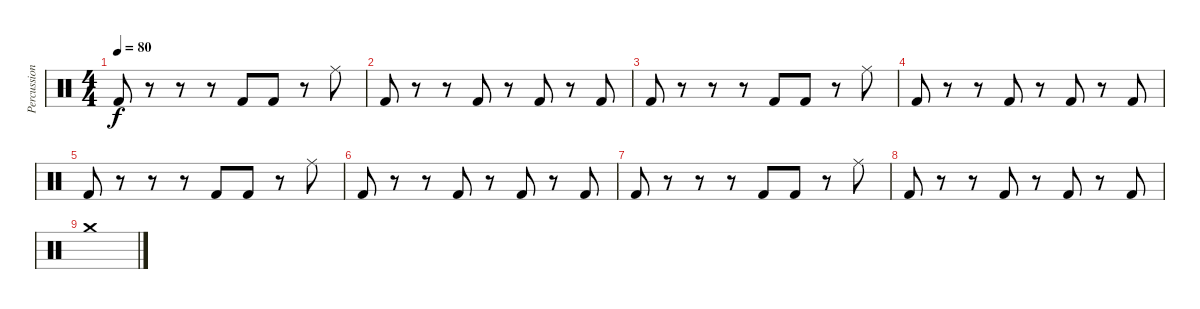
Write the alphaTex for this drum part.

\track ("Percussion" "Percussion") {instrument percussion}
\staff {score}
\articulation defaults
\ts (4 4)
\tempo 80
\clef neutral
\ks c "Kick (hit) 2".8{dy f volume 14 balance 3}
r.8 r.8 r.8 "Kick (hit) 2".8 "Kick (hit) 2".8 r.8 "Ride (middle)".8 |
"Kick (hit) 2".8 r.8 r.8 "Kick (hit) 2".8 r.8 "Kick (hit) 2".8 r.8 "Kick (hit) 2".8 |
"Kick (hit) 2".8{volume 14 balance 15} r.8 r.8 r.8 "Kick (hit) 2".8 "Kick (hit) 2".8 r.8 "Ride (middle)".8 |
"Kick (hit) 2".8 r.8 r.8 "Kick (hit) 2".8 r.8 "Kick (hit) 2".8 r.8 "Kick (hit) 2".8 |
"Kick (hit) 2".8{volume 14 balance 3} r.8 r.8 r.8 "Kick (hit) 2".8 "Kick (hit) 2".8 r.8 "Ride (middle)".8 |
"Kick (hit) 2".8 r.8 r.8 "Kick (hit) 2".8 r.8 "Kick (hit) 2".8 r.8 "Kick (hit) 2".8 |
"Kick (hit) 2".8{volume 14 balance 15} r.8 r.8 r.8 "Kick (hit) 2".8 "Kick (hit) 2".8 r.8 "Ride (middle)".8 |
"Kick (hit) 2".8 r.8 r.8 "Kick (hit) 2".8 r.8 "Kick (hit) 2".8 r.8 "Kick (hit) 2".8 |
"Crash medium (hit)".1{balance 8}
